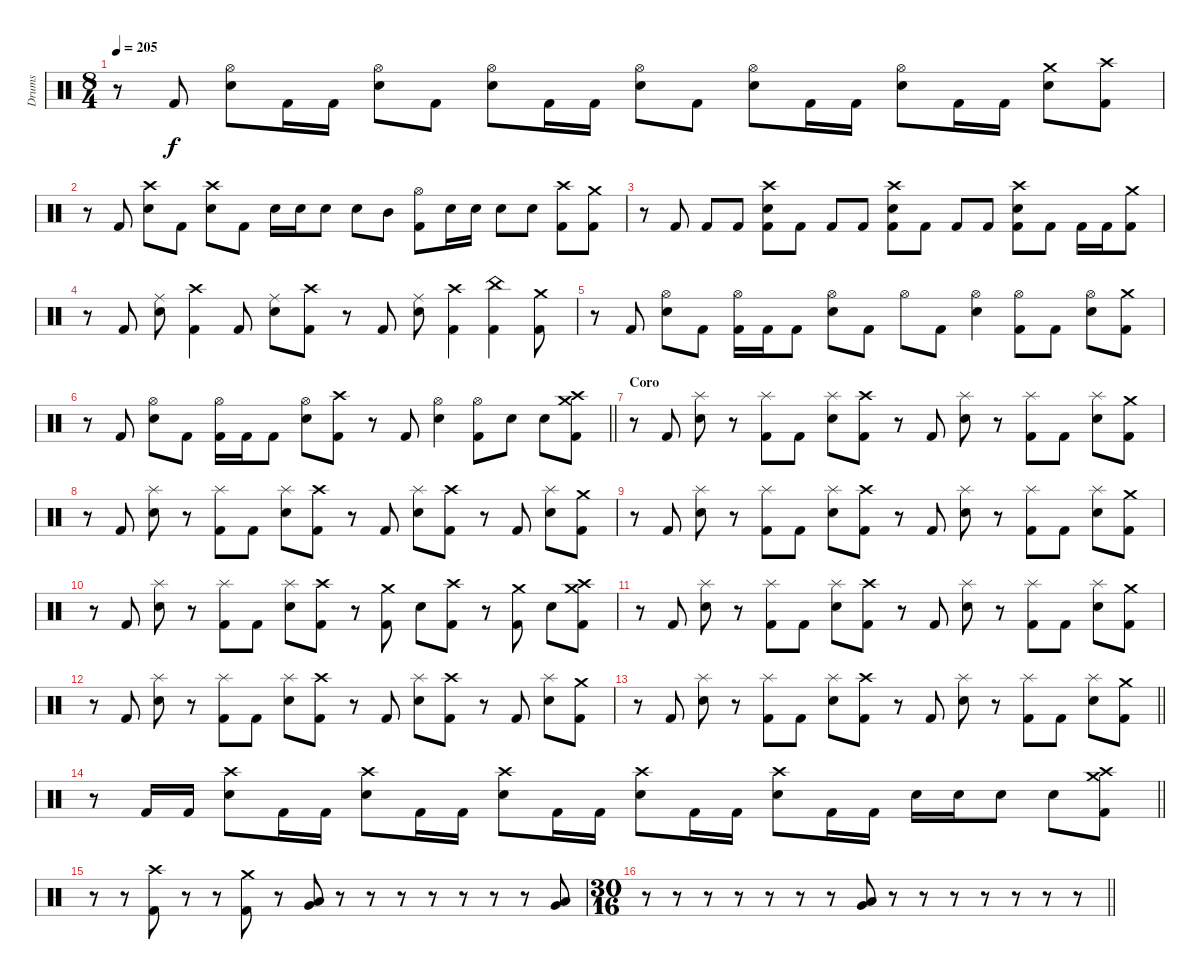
\track ("Drums" "Drums") {instrument percussion}
\staff {score}
\articulation defaults
\ts (8 4)
\tempo 205
\clef neutral
\ks c
r.8{dy f} "Kick (hit) 2".8 ("Hi-Hat (open)" "Electric Snare (hit)").8 "Kick (hit) 2".16 "Kick (hit) 2".16 ("Hi-Hat (open)" "Electric Snare (hit)").8 "Kick (hit) 2".8 ("Hi-Hat (open)" "Electric Snare (hit)").8 "Kick (hit) 2".16 "Kick (hit) 2".16 ("Hi-Hat (open)" "Electric Snare (hit)").8 "Kick (hit) 2".8 ("Hi-Hat (open)" "Electric Snare (hit)").8 "Kick (hit) 2".16 "Kick (hit) 2".16 ("Hi-Hat (open)" "Electric Snare (hit)").8 "Kick (hit) 2".16 "Kick (hit) 2".16 ("Crash medium (hit)" "Electric Snare (hit)").8 ("Crash high (hit)" "Kick (hit) 2").8 |
r.8 "Kick (hit) 2".8 ("Crash high (hit)" "Electric Snare (hit)").8 "Kick (hit) 2".8 ("Crash high (hit)" "Electric Snare (hit)").8 "Kick (hit) 2".8 "Electric Snare (hit)".16 "Electric Snare (hit)".16 "Electric Snare (hit)".8 "Electric Snare (hit)".8 "Mid Tom (hit)".8 ("Hi-Hat (open)" "Kick (hit) 2").8 "Electric Snare (hit)".16 "Electric Snare (hit)".16 "Electric Snare (hit)".8 "Electric Snare (hit)".8 ("Crash high (hit)" "Kick (hit) 2").8 ("Crash medium (hit)" "Kick (hit) 2").8 |
r.8 "Kick (hit) 2".8 "Kick (hit) 2".8 "Kick (hit) 2".8 ("Crash high (hit)" "Electric Snare (hit)" "Kick (hit) 2").8 "Kick (hit) 2".8 "Kick (hit) 2".8 "Kick (hit) 2".8 ("Crash high (hit)" "Electric Snare (hit)" "Kick (hit) 2").8 "Kick (hit) 2".8 "Kick (hit) 2".8 "Kick (hit) 2".8 ("Crash high (hit)" "Electric Snare (hit)" "Kick (hit) 2").8 "Kick (hit) 2".8 "Kick (hit) 2".16 "Kick (hit) 2".16 ("Crash medium (hit)" "Kick (hit) 2").8 |
r.8 "Kick (hit) 2".8 ("Ride (middle)" "Electric Snare (hit)").8 ("Crash high (hit)" "Kick (hit) 2").4 "Kick (hit) 2".8 ("Ride (middle)" "Electric Snare (hit)").8 ("Crash high (hit)" "Kick (hit) 2").8 r.8 "Kick (hit) 2".8 ("Ride (middle)" "Electric Snare (hit)").8 ("Crash high (hit)" "Kick (hit) 2").4 ("China (hit)" "Kick (hit) 2").4 ("Crash medium (hit)" "Kick (hit) 2").8 |
r.8 "Kick (hit) 2".8 ("Hi-Hat (open)" "Electric Snare (hit)").8 "Kick (hit) 2".8 ("Hi-Hat (open)" "Kick (hit) 2").16 "Kick (hit) 2".16 "Kick (hit) 2".8 ("Hi-Hat (open)" "Electric Snare (hit)").8 "Kick (hit) 2".8 "Hi-Hat (open)".8 "Kick (hit) 2".8 ("Hi-Hat (open)" "Electric Snare (hit)").4 ("Hi-Hat (open)" "Kick (hit) 2").8 "Kick (hit) 2".8 ("Hi-Hat (open)" "Electric Snare (hit)").8 ("Crash medium (hit)" "Kick (hit) 2").8 |
\barLineRight lightlight
r.8 "Kick (hit) 2".8 ("Hi-Hat (open)" "Electric Snare (hit)").8 "Kick (hit) 2".8 ("Hi-Hat (open)" "Kick (hit) 2").16 "Kick (hit) 2".16 "Kick (hit) 2".8 ("Hi-Hat (open)" "Electric Snare (hit)").8 ("Crash high (hit)" "Kick (hit) 2").8 r.8 "Kick (hit) 2".8 ("Hi-Hat (open)" "Electric Snare (hit)").4 ("Hi-Hat (open)" "Kick (hit) 2").8 "Electric Snare (hit)".8 "Electric Snare (hit)".8 ("Crash medium (hit)" "Crash high (hit)" "Kick (hit) 2").8 |
\section ("" "Coro")
r.8 "Kick (hit) 2".8 ("Splash (hit)" "Electric Snare (hit)").8 r.8 ("Splash (hit)" "Kick (hit) 2").8 "Kick (hit) 2".8 ("Splash (hit)" "Electric Snare (hit)").8 ("Crash high (hit)" "Kick (hit) 2").8 r.8 "Kick (hit) 2".8 ("Splash (hit)" "Electric Snare (hit)").8 r.8 ("Splash (hit)" "Kick (hit) 2").8 "Kick (hit) 2".8 ("Splash (hit)" "Electric Snare (hit)").8 ("Crash medium (hit)" "Kick (hit) 2").8 |
r.8 "Kick (hit) 2".8 ("Splash (hit)" "Electric Snare (hit)").8 r.8 ("Splash (hit)" "Kick (hit) 2").8 "Kick (hit) 2".8 ("Splash (hit)" "Electric Snare (hit)").8 ("Crash high (hit)" "Kick (hit) 2").8 r.8 "Kick (hit) 2".8 ("Splash (hit)" "Electric Snare (hit)").8 ("Crash high (hit)" "Kick (hit) 2").8 r.8 "Kick (hit) 2".8 ("Splash (hit)" "Electric Snare (hit)").8 ("Crash medium (hit)" "Kick (hit) 2").8 |
r.8 "Kick (hit) 2".8 ("Splash (hit)" "Electric Snare (hit)").8 r.8 ("Splash (hit)" "Kick (hit) 2").8 "Kick (hit) 2".8 ("Splash (hit)" "Electric Snare (hit)").8 ("Crash high (hit)" "Kick (hit) 2").8 r.8 "Kick (hit) 2".8 ("Splash (hit)" "Electric Snare (hit)").8 r.8 ("Splash (hit)" "Kick (hit) 2").8 "Kick (hit) 2".8 ("Splash (hit)" "Electric Snare (hit)").8 ("Crash medium (hit)" "Kick (hit) 2").8 |
r.8 "Kick (hit) 2".8 ("Splash (hit)" "Electric Snare (hit)").8 r.8 ("Splash (hit)" "Kick (hit) 2").8 "Kick (hit) 2".8 ("Splash (hit)" "Electric Snare (hit)").8 ("Crash high (hit)" "Kick (hit) 2").8 r.8 ("Crash medium (hit)" "Kick (hit) 2").8 "Electric Snare (hit)".8 ("Crash high (hit)" "Kick (hit) 2").8 r.8 ("Crash medium (hit)" "Kick (hit) 2").8 "Electric Snare (hit)".8 ("Crash medium (hit)" "Crash high (hit)" "Kick (hit) 2").8 |
r.8 "Kick (hit) 2".8 ("Splash (hit)" "Electric Snare (hit)").8 r.8 ("Splash (hit)" "Kick (hit) 2").8 "Kick (hit) 2".8 ("Splash (hit)" "Electric Snare (hit)").8 ("Crash high (hit)" "Kick (hit) 2").8 r.8 "Kick (hit) 2".8 ("Splash (hit)" "Electric Snare (hit)").8 r.8 ("Splash (hit)" "Kick (hit) 2").8 "Kick (hit) 2".8 ("Splash (hit)" "Electric Snare (hit)").8 ("Crash medium (hit)" "Kick (hit) 2").8 |
r.8 "Kick (hit) 2".8 ("Splash (hit)" "Electric Snare (hit)").8 r.8 ("Splash (hit)" "Kick (hit) 2").8 "Kick (hit) 2".8 ("Splash (hit)" "Electric Snare (hit)").8 ("Crash high (hit)" "Kick (hit) 2").8 r.8 "Kick (hit) 2".8 ("Splash (hit)" "Electric Snare (hit)").8 ("Crash high (hit)" "Kick (hit) 2").8 r.8 "Kick (hit) 2".8 ("Splash (hit)" "Electric Snare (hit)").8 ("Crash medium (hit)" "Kick (hit) 2").8 |
\barLineRight lightlight
r.8 "Kick (hit) 2".8 ("Splash (hit)" "Electric Snare (hit)").8 r.8 ("Splash (hit)" "Kick (hit) 2").8 "Kick (hit) 2".8 ("Splash (hit)" "Electric Snare (hit)").8 ("Crash high (hit)" "Kick (hit) 2").8 r.8 "Kick (hit) 2".8 ("Splash (hit)" "Electric Snare (hit)").8 r.8 ("Splash (hit)" "Kick (hit) 2").8 "Kick (hit) 2".8 ("Splash (hit)" "Electric Snare (hit)").8 ("Crash medium (hit)" "Kick (hit) 2").8 |
\barLineRight lightlight
r.8 "Kick (hit) 2".16 "Kick (hit) 2".16 ("Crash high (hit)" "Electric Snare (hit)").8 "Kick (hit) 2".16 "Kick (hit) 2".16 ("Crash high (hit)" "Electric Snare (hit)").8 "Kick (hit) 2".16 "Kick (hit) 2".16 ("Crash high (hit)" "Electric Snare (hit)").8 "Kick (hit) 2".16 "Kick (hit) 2".16 ("Crash high (hit)" "Electric Snare (hit)").8 "Kick (hit) 2".16 "Kick (hit) 2".16 ("Crash high (hit)" "Electric Snare (hit)").8 "Kick (hit) 2".16 "Kick (hit) 2".16 "Electric Snare (hit)".16 "Electric Snare (hit)".16 "Electric Snare (hit)".8 "Electric Snare (hit)".8 ("Crash medium (hit)" "Crash high (hit)" "Kick (hit) 2").8 |
r.8 r.8 ("Crash high (hit)" "Kick (hit) 2").8 r.8 r.8 ("Crash medium (hit)" "Kick (hit) 2").8 r.8 ("Low Floor Tom (hit)" "Very Low Tom (hit)").8 r.8 r.8 r.8 r.8 r.8 r.8 r.8 ("Very Low Tom (hit)" "Low Floor Tom (hit)").8 |
\ts (30 16)
\barLineRight lightlight
r.8 r.8 r.8 r.8 r.8 r.8 r.8 ("Low Floor Tom (hit)" "Very Low Tom (hit)").8 r.8 r.8 r.8 r.8 r.8 r.8 r.8
